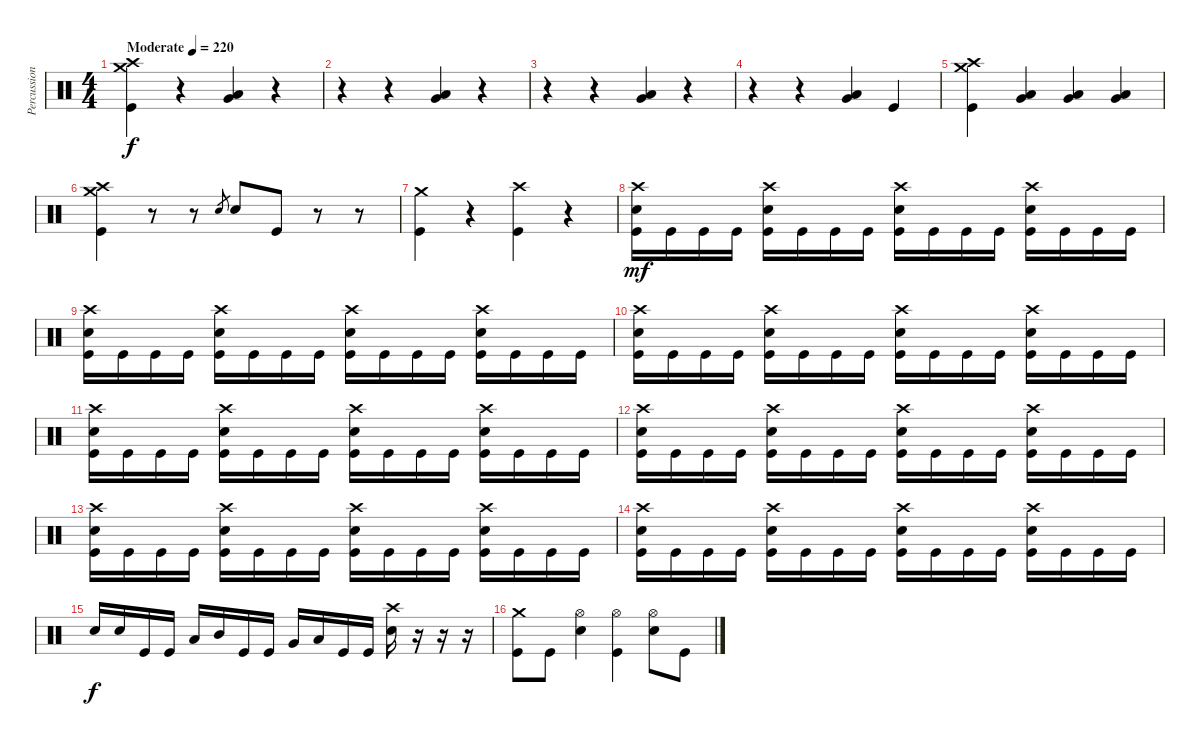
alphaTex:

\track ("Percussion" "Percussion") {instrument percussion}
\staff {score}
\articulation defaults
\ts (4 4)
\tempo (220 "Moderate")
\clef neutral
\ks c
("Crash medium (hit)" "Crash high (hit)" "Kick (hit)").4{dy f} r.4 ("Low Tom (hit)" "Very Low Tom (hit)").4 r.4 |
r.4 r.4 ("Low Tom (hit)" "Very Low Tom (hit)").4 r.4 |
r.4 r.4 ("Low Tom (hit)" "Very Low Tom (hit)").4 r.4 |
r.4 r.4 ("Low Tom (hit)" "Very Low Tom (hit)").4 "Kick (hit)".4 |
("Crash medium (hit)" "Crash high (hit)" "Kick (hit)").4{volume 9} ("Low Tom (hit)" "Very Low Tom (hit)").4{volume 16} ("Low Tom (hit)" "Very Low Tom (hit)").4 ("Low Tom (hit)" "Very Low Tom (hit)").4 |
("Crash medium (hit)" "Crash high (hit)" "Kick (hit)").4{volume 13} r.8 r.8 "Snare (hit) 2".8{gr} "Snare (hit) 2".8 "Kick (hit)".8 r.8 r.8 |
("Crash medium (hit)" "Kick (hit)").4 r.4 ("Crash high (hit)" "Kick (hit)").4 r.4 |
("Crash high (hit)" "Snare (hit) 2" "Kick (hit)").16{dy mf} "Kick (hit)".16 "Kick (hit)".16 "Kick (hit)".16 ("Crash high (hit)" "Snare (hit) 2" "Kick (hit)").16 "Kick (hit)".16 "Kick (hit)".16 "Kick (hit)".16 ("Crash high (hit)" "Snare (hit) 2" "Kick (hit)").16 "Kick (hit)".16 "Kick (hit)".16 "Kick (hit)".16 ("Crash high (hit)" "Snare (hit) 2" "Kick (hit)").16 "Kick (hit)".16 "Kick (hit)".16 "Kick (hit)".16 |
("Crash high (hit)" "Snare (hit) 2" "Kick (hit)").16 "Kick (hit)".16 "Kick (hit)".16 "Kick (hit)".16 ("Crash high (hit)" "Snare (hit) 2" "Kick (hit)").16 "Kick (hit)".16 "Kick (hit)".16 "Kick (hit)".16 ("Crash high (hit)" "Snare (hit) 2" "Kick (hit)").16 "Kick (hit)".16 "Kick (hit)".16 "Kick (hit)".16 ("Crash high (hit)" "Snare (hit) 2" "Kick (hit)").16 "Kick (hit)".16 "Kick (hit)".16 "Kick (hit)".16 |
("Crash high (hit)" "Snare (hit) 2" "Kick (hit)").16 "Kick (hit)".16 "Kick (hit)".16 "Kick (hit)".16 ("Crash high (hit)" "Snare (hit) 2" "Kick (hit)").16 "Kick (hit)".16 "Kick (hit)".16 "Kick (hit)".16 ("Crash high (hit)" "Snare (hit) 2" "Kick (hit)").16 "Kick (hit)".16 "Kick (hit)".16 "Kick (hit)".16 ("Crash high (hit)" "Snare (hit) 2" "Kick (hit)").16 "Kick (hit)".16 "Kick (hit)".16 "Kick (hit)".16 |
("Crash high (hit)" "Snare (hit) 2" "Kick (hit)").16 "Kick (hit)".16 "Kick (hit)".16 "Kick (hit)".16 ("Crash high (hit)" "Snare (hit) 2" "Kick (hit)").16 "Kick (hit)".16 "Kick (hit)".16 "Kick (hit)".16 ("Crash high (hit)" "Snare (hit) 2" "Kick (hit)").16 "Kick (hit)".16 "Kick (hit)".16 "Kick (hit)".16 ("Crash high (hit)" "Snare (hit) 2" "Kick (hit)").16 "Kick (hit)".16 "Kick (hit)".16 "Kick (hit)".16 |
("Crash high (hit)" "Snare (hit) 2" "Kick (hit)").16 "Kick (hit)".16 "Kick (hit)".16 "Kick (hit)".16 ("Crash high (hit)" "Snare (hit) 2" "Kick (hit)").16 "Kick (hit)".16 "Kick (hit)".16 "Kick (hit)".16 ("Crash high (hit)" "Snare (hit) 2" "Kick (hit)").16 "Kick (hit)".16 "Kick (hit)".16 "Kick (hit)".16 ("Crash high (hit)" "Snare (hit) 2" "Kick (hit)").16 "Kick (hit)".16 "Kick (hit)".16 "Kick (hit)".16 |
("Crash high (hit)" "Snare (hit) 2" "Kick (hit)").16 "Kick (hit)".16 "Kick (hit)".16 "Kick (hit)".16 ("Crash high (hit)" "Snare (hit) 2" "Kick (hit)").16 "Kick (hit)".16 "Kick (hit)".16 "Kick (hit)".16 ("Crash high (hit)" "Snare (hit) 2" "Kick (hit)").16 "Kick (hit)".16 "Kick (hit)".16 "Kick (hit)".16 ("Crash high (hit)" "Snare (hit) 2" "Kick (hit)").16 "Kick (hit)".16 "Kick (hit)".16 "Kick (hit)".16 |
("Crash high (hit)" "Snare (hit) 2" "Kick (hit)").16 "Kick (hit)".16 "Kick (hit)".16 "Kick (hit)".16 ("Crash high (hit)" "Snare (hit) 2" "Kick (hit)").16 "Kick (hit)".16 "Kick (hit)".16 "Kick (hit)".16 ("Crash high (hit)" "Snare (hit) 2" "Kick (hit)").16 "Kick (hit)".16 "Kick (hit)".16 "Kick (hit)".16 ("Crash high (hit)" "Snare (hit) 2" "Kick (hit)").16 "Kick (hit)".16 "Kick (hit)".16 "Kick (hit)".16 |
"Snare (hit) 2".16{dy f} "Snare (hit) 2".16 "Kick (hit)".16 "Kick (hit)".16 "Low Tom (hit)".16 "Mid Tom (hit)".16 "Kick (hit)".16 "Kick (hit)".16 "Very Low Tom (hit)".16 "Low Tom (hit)".16 "Kick (hit)".16 "Kick (hit)".16 ("Crash high (hit)" "Snare (hit) 2").16 r.16 r.16 r.16 |
("Crash medium (hit)" "Kick (hit)").8 "Kick (hit)".8 ("Hi-Hat (open)" "Snare (hit) 2").4 ("Hi-Hat (open)" "Kick (hit)").4 ("Hi-Hat (open)" "Snare (hit) 2").8 "Kick (hit)".8
